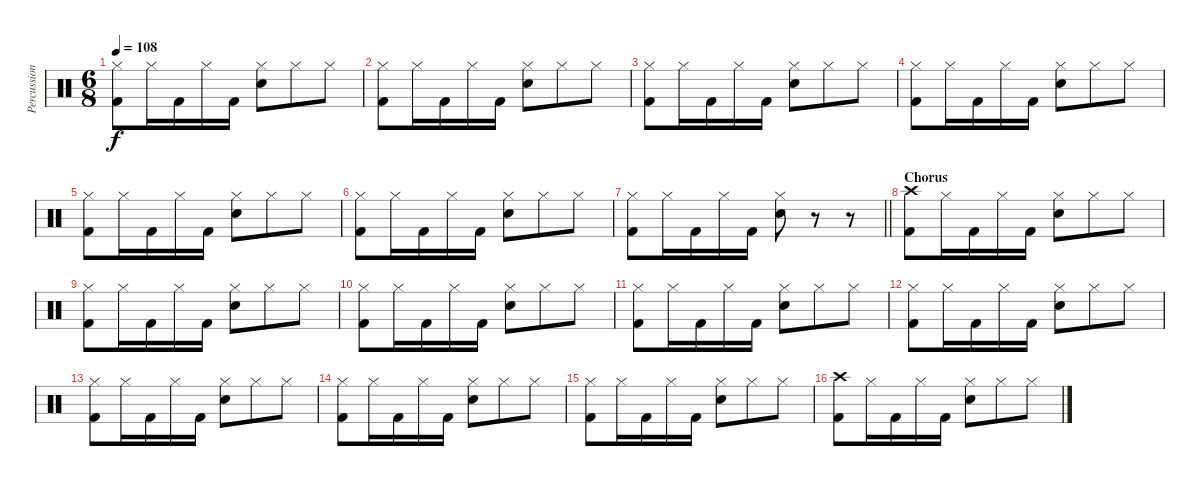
\track ("Percussions" "Percussion") {instrument percussion}
\staff {score}
\articulation defaults
\ts (6 8)
\tempo 108
\clef neutral
\ks c
("Hi-Hat (closed)" "Kick (hit) 2").8{dy f} "Hi-Hat (closed)".16 "Kick (hit) 2".16 "Hi-Hat (closed)".16 "Kick (hit) 2".16 ("Hi-Hat (closed)" "Electric Snare (hit)").8 "Hi-Hat (closed)".8 "Hi-Hat (closed)".8 |
("Hi-Hat (closed)" "Kick (hit) 2").8 "Hi-Hat (closed)".16 "Kick (hit) 2".16 "Hi-Hat (closed)".16 "Kick (hit) 2".16 ("Hi-Hat (closed)" "Electric Snare (hit)").8 "Hi-Hat (closed)".8 "Hi-Hat (closed)".8 |
("Hi-Hat (closed)" "Kick (hit) 2").8 "Hi-Hat (closed)".16 "Kick (hit) 2".16 "Hi-Hat (closed)".16 "Kick (hit) 2".16 ("Hi-Hat (closed)" "Electric Snare (hit)").8 "Hi-Hat (closed)".8 "Hi-Hat (closed)".8 |
("Hi-Hat (closed)" "Kick (hit) 2").8 "Hi-Hat (closed)".16 "Kick (hit) 2".16 "Hi-Hat (closed)".16 "Kick (hit) 2".16 ("Hi-Hat (closed)" "Electric Snare (hit)").8 "Hi-Hat (closed)".8 "Hi-Hat (closed)".8 |
("Hi-Hat (closed)" "Kick (hit) 2").8 "Hi-Hat (closed)".16 "Kick (hit) 2".16 "Hi-Hat (closed)".16 "Kick (hit) 2".16 ("Hi-Hat (closed)" "Electric Snare (hit)").8 "Hi-Hat (closed)".8 "Hi-Hat (closed)".8 |
("Hi-Hat (closed)" "Kick (hit) 2").8 "Hi-Hat (closed)".16 "Kick (hit) 2".16 "Hi-Hat (closed)".16 "Kick (hit) 2".16 ("Hi-Hat (closed)" "Electric Snare (hit)").8 "Hi-Hat (closed)".8 "Hi-Hat (closed)".8 |
\barLineRight lightlight
("Hi-Hat (closed)" "Kick (hit) 2").8 "Hi-Hat (closed)".16 "Kick (hit) 2".16 "Hi-Hat (closed)".16 "Kick (hit) 2".16 ("Hi-Hat (closed)" "Electric Snare (hit)").8 r.8 r.8 |
\section ("" "Chorus")
("Crash high (hit)" "Kick (hit) 2").8 "Hi-Hat (closed)".16 "Kick (hit) 2".16 "Hi-Hat (closed)".16 "Kick (hit) 2".16 ("Hi-Hat (closed)" "Electric Snare (hit)").8 "Hi-Hat (closed)".8 "Hi-Hat (closed)".8 |
("Hi-Hat (closed)" "Kick (hit) 2").8 "Hi-Hat (closed)".16 "Kick (hit) 2".16 "Hi-Hat (closed)".16 "Kick (hit) 2".16 ("Hi-Hat (closed)" "Electric Snare (hit)").8 "Hi-Hat (closed)".8 "Hi-Hat (closed)".8 |
("Hi-Hat (closed)" "Kick (hit) 2").8 "Hi-Hat (closed)".16 "Kick (hit) 2".16 "Hi-Hat (closed)".16 "Kick (hit) 2".16 ("Hi-Hat (closed)" "Electric Snare (hit)").8 "Hi-Hat (closed)".8 "Hi-Hat (closed)".8 |
("Hi-Hat (closed)" "Kick (hit) 2").8 "Hi-Hat (closed)".16 "Kick (hit) 2".16 "Hi-Hat (closed)".16 "Kick (hit) 2".16 ("Hi-Hat (closed)" "Electric Snare (hit)").8 "Hi-Hat (closed)".8 "Hi-Hat (closed)".8 |
("Hi-Hat (closed)" "Kick (hit) 2").8 "Hi-Hat (closed)".16 "Kick (hit) 2".16 "Hi-Hat (closed)".16 "Kick (hit) 2".16 ("Hi-Hat (closed)" "Electric Snare (hit)").8 "Hi-Hat (closed)".8 "Hi-Hat (closed)".8 |
("Hi-Hat (closed)" "Kick (hit) 2").8 "Hi-Hat (closed)".16 "Kick (hit) 2".16 "Hi-Hat (closed)".16 "Kick (hit) 2".16 ("Hi-Hat (closed)" "Electric Snare (hit)").8 "Hi-Hat (closed)".8 "Hi-Hat (closed)".8 |
("Hi-Hat (closed)" "Kick (hit) 2").8 "Hi-Hat (closed)".16 "Kick (hit) 2".16 "Hi-Hat (closed)".16 "Kick (hit) 2".16 ("Hi-Hat (closed)" "Electric Snare (hit)").8 "Hi-Hat (closed)".8 "Hi-Hat (closed)".8 |
("Hi-Hat (closed)" "Kick (hit) 2").8 "Hi-Hat (closed)".16 "Kick (hit) 2".16 "Hi-Hat (closed)".16 "Kick (hit) 2".16 ("Hi-Hat (closed)" "Electric Snare (hit)").8 "Hi-Hat (closed)".8 "Hi-Hat (closed)".8 |
("Crash high (hit)" "Kick (hit) 2").8 "Hi-Hat (closed)".16 "Kick (hit) 2".16 "Hi-Hat (closed)".16 "Kick (hit) 2".16 ("Hi-Hat (closed)" "Electric Snare (hit)").8 "Hi-Hat (closed)".8 "Hi-Hat (closed)".8
